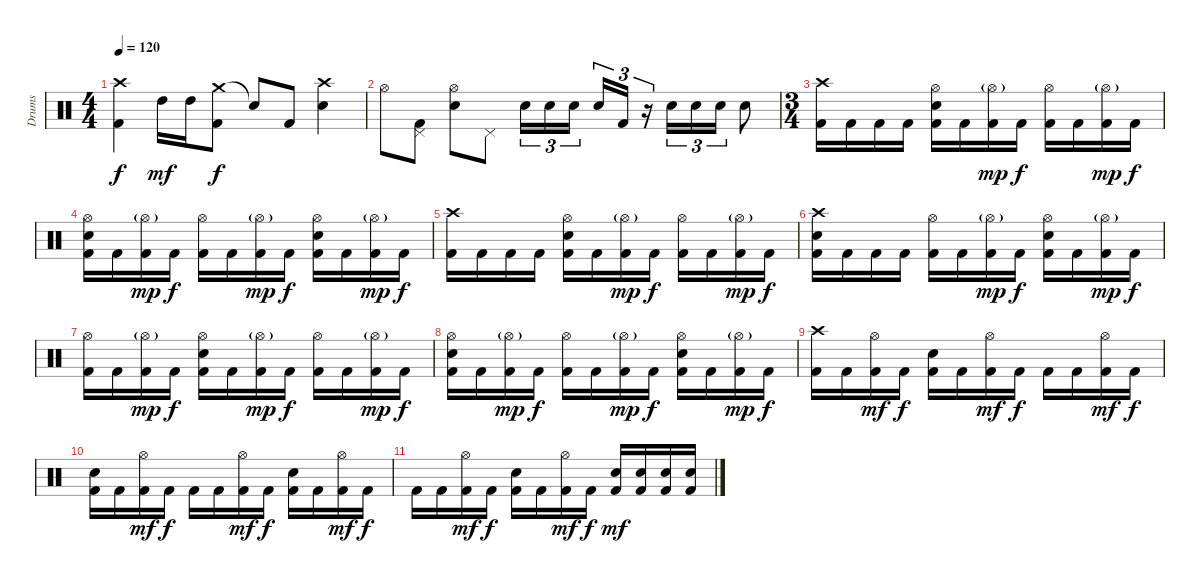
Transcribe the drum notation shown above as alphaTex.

\track ("Drums" "Drums") {instrument percussion}
\staff {score}
\articulation defaults
\ts (4 4)
\tempo 120
\clef neutral
\ks c
("Crash high (hit)" "Kick (hit) 2").4{dy f} "High Tom (hit)".16{dy mf} "High Tom (hit)".16 ("Crash medium (hit)" "Kick (hit) 2").8{dy f} "Snare (hit)"{t}.8 "Kick (hit) 2".8 ("Crash high (hit)" "Snare (hit) 2").4 |
"Hi-Hat (open)".8 ("Pedal Hi-Hat (hit)" "Kick (hit) 2").8 ("Hi-Hat (open)" "Snare (hit) 2").8 "Pedal Hi-Hat (hit)".8 "Snare (hit) 2".16{tu (3 2)} "Snare (hit) 2".16{tu (3 2)} "Snare (hit) 2".16{tu (3 2)} "Snare (hit) 2".16{tu (3 2)} "Kick (hit) 2".16{tu (3 2)} r.16{tu (3 2)} "Snare (hit) 2".16{tu (3 2)} "Snare (hit) 2".16{tu (3 2)} "Snare (hit) 2".16{tu (3 2)} "Snare (hit) 2".8 |
\ts (3 4)
("Crash high (hit)" "Kick (hit) 2").16 "Kick (hit) 2".16 "Kick (hit) 2".16 "Kick (hit) 2".16 ("Hi-Hat (open)" "Snare (hit) 2" "Kick (hit) 2").16 "Kick (hit) 2".16 ("Hi-Hat (open)"{g} "Kick (hit) 2").16{dy mp} "Kick (hit) 2".16{dy f} ("Hi-Hat (open)" "Kick (hit) 2").16 "Kick (hit) 2".16 ("Hi-Hat (open)"{g} "Kick (hit) 2").16{dy mp} "Kick (hit) 2".16{dy f} |
("Hi-Hat (open)" "Snare (hit) 2" "Kick (hit) 2").16 "Kick (hit) 2".16 ("Hi-Hat (open)"{g} "Kick (hit) 2").16{dy mp} "Kick (hit) 2".16{dy f} ("Hi-Hat (open)" "Kick (hit) 2").16 "Kick (hit) 2".16 ("Hi-Hat (open)"{g} "Kick (hit) 2").16{dy mp} "Kick (hit) 2".16{dy f} ("Hi-Hat (open)" "Snare (hit) 2" "Kick (hit) 2").16 "Kick (hit) 2".16 ("Hi-Hat (open)"{g} "Kick (hit) 2").16{dy mp} "Kick (hit) 2".16{dy f} |
("Crash high (hit)" "Kick (hit) 2").16 "Kick (hit) 2".16 "Kick (hit) 2".16 "Kick (hit) 2".16 ("Hi-Hat (open)" "Snare (hit) 2" "Kick (hit) 2").16 "Kick (hit) 2".16 ("Hi-Hat (open)"{g} "Kick (hit) 2").16{dy mp} "Kick (hit) 2".16{dy f} ("Hi-Hat (open)" "Kick (hit) 2").16 "Kick (hit) 2".16 ("Hi-Hat (open)"{g} "Kick (hit) 2").16{dy mp} "Kick (hit) 2".16{dy f} |
("Crash high (hit)" "Snare (hit) 2" "Kick (hit) 2").16 "Kick (hit) 2".16 "Kick (hit) 2".16 "Kick (hit) 2".16 ("Hi-Hat (open)" "Kick (hit) 2").16 "Kick (hit) 2".16 ("Hi-Hat (open)"{g} "Kick (hit) 2").16{dy mp} "Kick (hit) 2".16{dy f} ("Hi-Hat (open)" "Snare (hit) 2" "Kick (hit) 2").16 "Kick (hit) 2".16 ("Hi-Hat (open)"{g} "Kick (hit) 2").16{dy mp} "Kick (hit) 2".16{dy f} |
("Hi-Hat (open)" "Kick (hit) 2").16 "Kick (hit) 2".16 ("Hi-Hat (open)"{g} "Kick (hit) 2").16{dy mp} "Kick (hit) 2".16{dy f} ("Hi-Hat (open)" "Snare (hit) 2" "Kick (hit) 2").16 "Kick (hit) 2".16 ("Hi-Hat (open)"{g} "Kick (hit) 2").16{dy mp} "Kick (hit) 2".16{dy f} ("Hi-Hat (open)" "Kick (hit) 2").16 "Kick (hit) 2".16 ("Hi-Hat (open)"{g} "Kick (hit) 2").16{dy mp} "Kick (hit) 2".16{dy f} |
("Hi-Hat (open)" "Snare (hit) 2" "Kick (hit) 2").16 "Kick (hit) 2".16 ("Hi-Hat (open)"{g} "Kick (hit) 2").16{dy mp} "Kick (hit) 2".16{dy f} ("Hi-Hat (open)" "Kick (hit) 2").16 "Kick (hit) 2".16 ("Hi-Hat (open)"{g} "Kick (hit) 2").16{dy mp} "Kick (hit) 2".16{dy f} ("Hi-Hat (open)" "Snare (hit) 2" "Kick (hit) 2").16 "Kick (hit) 2".16 ("Hi-Hat (open)"{g} "Kick (hit) 2").16{dy mp} "Kick (hit) 2".16{dy f} |
("Crash high (hit)" "Kick (hit) 2").16 "Kick (hit) 2".16 ("Hi-Hat (open)" "Kick (hit) 2").16{dy mf} "Kick (hit) 2".16{dy f} ("Snare (hit) 2" "Kick (hit) 2").16 "Kick (hit) 2".16 ("Hi-Hat (open)" "Kick (hit) 2").16{dy mf} "Kick (hit) 2".16{dy f} "Kick (hit) 2".16 "Kick (hit) 2".16 ("Hi-Hat (open)" "Kick (hit) 2").16{dy mf} "Kick (hit) 2".16{dy f} |
("Snare (hit) 2" "Kick (hit) 2").16 "Kick (hit) 2".16 ("Hi-Hat (open)" "Kick (hit) 2").16{dy mf} "Kick (hit) 2".16{dy f} "Kick (hit) 2".16 "Kick (hit) 2".16 ("Hi-Hat (open)" "Kick (hit) 2").16{dy mf} "Kick (hit) 2".16{dy f} ("Snare (hit) 2" "Kick (hit) 2").16 "Kick (hit) 2".16 ("Hi-Hat (open)" "Kick (hit) 2").16{dy mf} "Kick (hit) 2".16{dy f} |
"Kick (hit) 2".16 "Kick (hit) 2".16 ("Hi-Hat (open)" "Kick (hit) 2").16{dy mf} "Kick (hit) 2".16{dy f} ("Snare (hit) 2" "Kick (hit) 2").16 "Kick (hit) 2".16 ("Hi-Hat (open)" "Kick (hit) 2").16{dy mf} "Kick (hit) 2".16{dy f} ("Snare (hit) 2" "Kick (hit) 2").16{dy mf} ("Snare (hit) 2" "Kick (hit) 2").16 ("Snare (hit) 2" "Kick (hit) 2").16 ("Snare (hit) 2" "Kick (hit) 2").16
